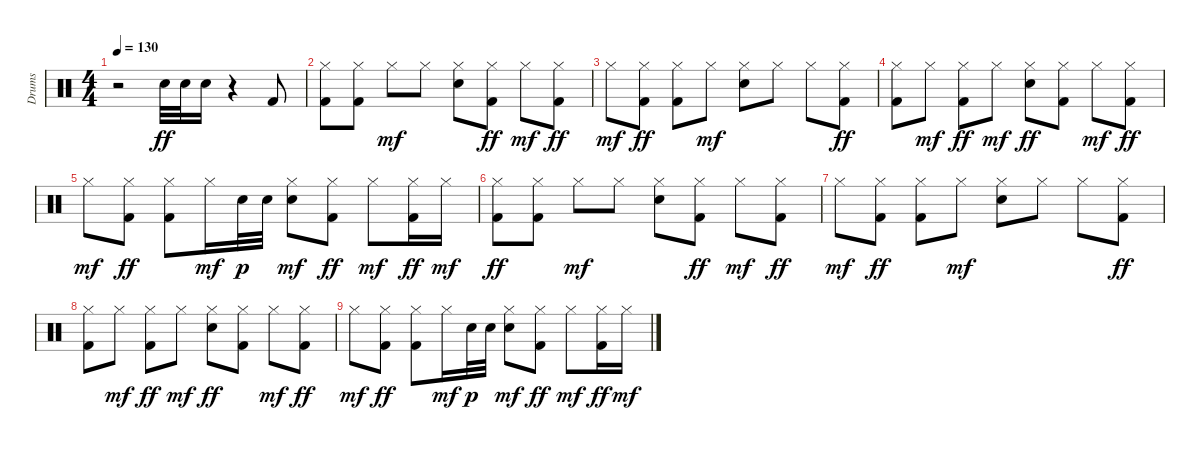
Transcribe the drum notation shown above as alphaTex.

\track ("Drums" "Drums") {instrument percussion}
\staff {score}
\articulation defaults
\ts (4 4)
\tempo 130
\clef neutral
\ks c
r.2{dy ff} "Snare (hit) 2".32 "Snare (hit) 2".32 "Snare (hit) 2".16 r.4 "Kick (hit) 2".8 |
("Hi-Hat (closed)" "Kick (hit) 2").8 ("Hi-Hat (closed)" "Kick (hit) 2").8 "Hi-Hat (closed)".8{dy mf} "Hi-Hat (closed)".8 ("Hi-Hat (closed)" "Snare (hit) 2").8 ("Hi-Hat (closed)" "Kick (hit) 2").8{dy ff} "Hi-Hat (closed)".8{dy mf} ("Hi-Hat (closed)" "Kick (hit) 2").8{dy ff} |
"Hi-Hat (closed)".8{dy mf} ("Hi-Hat (closed)" "Kick (hit) 2").8{dy ff} ("Hi-Hat (closed)" "Kick (hit) 2").8 "Hi-Hat (closed)".8{dy mf} ("Hi-Hat (closed)" "Snare (hit) 2").8 "Hi-Hat (closed)".8 "Hi-Hat (closed)".8 ("Hi-Hat (closed)" "Kick (hit) 2").8{dy ff} |
("Hi-Hat (closed)" "Kick (hit) 2").8 "Hi-Hat (closed)".8{dy mf} ("Hi-Hat (closed)" "Kick (hit) 2").8{dy ff} "Hi-Hat (closed)".8{dy mf} ("Hi-Hat (closed)" "Snare (hit) 2").8{dy ff} ("Hi-Hat (closed)" "Kick (hit) 2").8 "Hi-Hat (closed)".8{dy mf} ("Hi-Hat (closed)" "Kick (hit) 2").8{dy ff} |
"Hi-Hat (closed)".8{dy mf} ("Hi-Hat (closed)" "Kick (hit) 2").8{dy ff} ("Hi-Hat (closed)" "Kick (hit) 2").8 "Hi-Hat (closed)".16{dy mf} "Snare (hit) 2".32{dy p} "Snare (hit) 2".32 ("Hi-Hat (closed)" "Snare (hit) 2").8{dy mf} ("Hi-Hat (closed)" "Kick (hit) 2").8{dy ff} "Hi-Hat (closed)".8{dy mf} ("Hi-Hat (closed)" "Kick (hit) 2").16{dy ff} "Hi-Hat (closed)".16{dy mf} |
("Hi-Hat (closed)" "Kick (hit) 2").8{dy ff volume 7} ("Hi-Hat (closed)" "Kick (hit) 2").8 "Hi-Hat (closed)".8{dy mf} "Hi-Hat (closed)".8 ("Hi-Hat (closed)" "Snare (hit) 2").8 ("Hi-Hat (closed)" "Kick (hit) 2").8{dy ff} "Hi-Hat (closed)".8{dy mf} ("Hi-Hat (closed)" "Kick (hit) 2").8{dy ff} |
"Hi-Hat (closed)".8{dy mf} ("Hi-Hat (closed)" "Kick (hit) 2").8{dy ff} ("Hi-Hat (closed)" "Kick (hit) 2").8 "Hi-Hat (closed)".8{dy mf} ("Hi-Hat (closed)" "Snare (hit) 2").8 "Hi-Hat (closed)".8 "Hi-Hat (closed)".8 ("Hi-Hat (closed)" "Kick (hit) 2").8{dy ff} |
("Hi-Hat (closed)" "Kick (hit) 2").8 "Hi-Hat (closed)".8{dy mf} ("Hi-Hat (closed)" "Kick (hit) 2").8{dy ff} "Hi-Hat (closed)".8{dy mf} ("Hi-Hat (closed)" "Snare (hit) 2").8{dy ff} ("Hi-Hat (closed)" "Kick (hit) 2").8 "Hi-Hat (closed)".8{dy mf} ("Hi-Hat (closed)" "Kick (hit) 2").8{dy ff} |
"Hi-Hat (closed)".8{dy mf} ("Hi-Hat (closed)" "Kick (hit) 2").8{dy ff} ("Hi-Hat (closed)" "Kick (hit) 2").8 "Hi-Hat (closed)".16{dy mf} "Snare (hit) 2".32{dy p} "Snare (hit) 2".32 ("Hi-Hat (closed)" "Snare (hit) 2").8{dy mf} ("Hi-Hat (closed)" "Kick (hit) 2").8{dy ff} "Hi-Hat (closed)".8{dy mf} ("Hi-Hat (closed)" "Kick (hit) 2").16{dy ff} "Hi-Hat (closed)".16{dy mf}
